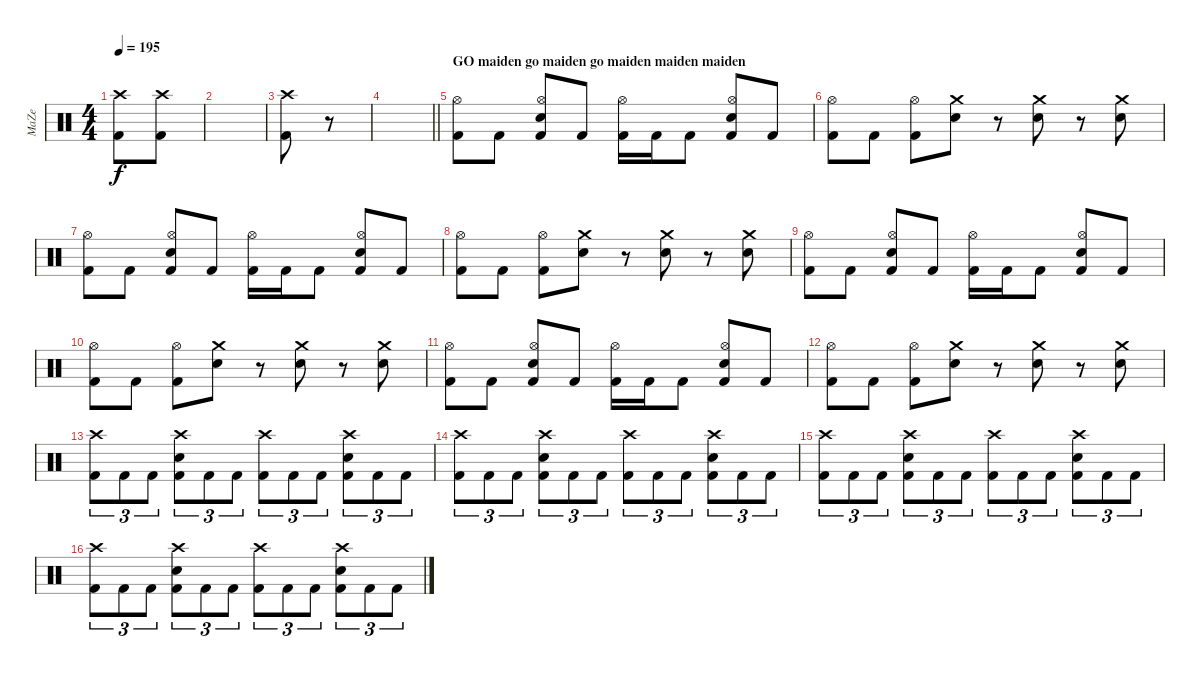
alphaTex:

\track ("MaZe" "MaZe") {instrument percussion}
\staff {score}
\articulation defaults
\ts (4 4)
\tempo 195
\clef neutral
\ks c
("Crash high (hit)" "Kick (hit) 2").8{dy f} ("Crash high (hit)" "Kick (hit) 2").8 |
|
("Crash high (hit)" "Kick (hit) 2").8 r.8 |
\barLineRight lightlight
|
\section ("" "GO maiden go maiden go maiden maiden maiden")
("Hi-Hat (open)" "Kick (hit) 2").8 "Kick (hit) 2".8 ("Snare (hit) 2" "Hi-Hat (open)" "Kick (hit) 2").8 "Kick (hit) 2".8 ("Hi-Hat (open)" "Kick (hit) 2").16 "Kick (hit) 2".16 "Kick (hit) 2".8 ("Snare (hit) 2" "Hi-Hat (open)" "Kick (hit) 2").8 "Kick (hit) 2".8 |
("Hi-Hat (open)" "Kick (hit) 2").8 "Kick (hit) 2".8 ("Hi-Hat (open)" "Kick (hit) 2").8 ("Crash medium (hit)" "Snare (hit) 2").8 r.8 ("Crash medium (hit)" "Snare (hit) 2").8 r.8 ("Crash medium (hit)" "Snare (hit) 2").8 |
("Hi-Hat (open)" "Kick (hit) 2").8 "Kick (hit) 2".8 ("Snare (hit) 2" "Hi-Hat (open)" "Kick (hit) 2").8 "Kick (hit) 2".8 ("Hi-Hat (open)" "Kick (hit) 2").16 "Kick (hit) 2".16 "Kick (hit) 2".8 ("Snare (hit) 2" "Hi-Hat (open)" "Kick (hit) 2").8 "Kick (hit) 2".8 |
("Hi-Hat (open)" "Kick (hit) 2").8 "Kick (hit) 2".8 ("Hi-Hat (open)" "Kick (hit) 2").8 ("Crash medium (hit)" "Snare (hit) 2").8 r.8 ("Crash medium (hit)" "Snare (hit) 2").8 r.8 ("Crash medium (hit)" "Snare (hit) 2").8 |
("Hi-Hat (open)" "Kick (hit) 2").8 "Kick (hit) 2".8 ("Snare (hit) 2" "Hi-Hat (open)" "Kick (hit) 2").8 "Kick (hit) 2".8 ("Hi-Hat (open)" "Kick (hit) 2").16 "Kick (hit) 2".16 "Kick (hit) 2".8 ("Snare (hit) 2" "Hi-Hat (open)" "Kick (hit) 2").8 "Kick (hit) 2".8 |
("Hi-Hat (open)" "Kick (hit) 2").8 "Kick (hit) 2".8 ("Hi-Hat (open)" "Kick (hit) 2").8 ("Crash medium (hit)" "Snare (hit) 2").8 r.8 ("Crash medium (hit)" "Snare (hit) 2").8 r.8 ("Crash medium (hit)" "Snare (hit) 2").8 |
("Hi-Hat (open)" "Kick (hit) 2").8 "Kick (hit) 2".8 ("Snare (hit) 2" "Hi-Hat (open)" "Kick (hit) 2").8 "Kick (hit) 2".8 ("Hi-Hat (open)" "Kick (hit) 2").16 "Kick (hit) 2".16 "Kick (hit) 2".8 ("Snare (hit) 2" "Hi-Hat (open)" "Kick (hit) 2").8 "Kick (hit) 2".8 |
("Hi-Hat (open)" "Kick (hit) 2").8 "Kick (hit) 2".8 ("Hi-Hat (open)" "Kick (hit) 2").8 ("Crash medium (hit)" "Snare (hit) 2").8 r.8 ("Crash medium (hit)" "Snare (hit) 2").8 r.8 ("Crash medium (hit)" "Snare (hit) 2").8 |
("Crash high (hit)" "Kick (hit) 2").8{tu (3 2)} "Kick (hit) 2".8{tu (3 2)} "Kick (hit) 2".8{tu (3 2)} ("Snare (hit) 2" "Crash high (hit)" "Kick (hit) 2").8{tu (3 2)} "Kick (hit) 2".8{tu (3 2)} "Kick (hit) 2".8{tu (3 2)} ("Crash high (hit)" "Kick (hit) 2").8{tu (3 2)} "Kick (hit) 2".8{tu (3 2)} "Kick (hit) 2".8{tu (3 2)} ("Snare (hit) 2" "Crash high (hit)" "Kick (hit) 2").8{tu (3 2)} "Kick (hit) 2".8{tu (3 2)} "Kick (hit) 2".8{tu (3 2)} |
("Crash high (hit)" "Kick (hit) 2").8{tu (3 2)} "Kick (hit) 2".8{tu (3 2)} "Kick (hit) 2".8{tu (3 2)} ("Snare (hit) 2" "Crash high (hit)" "Kick (hit) 2").8{tu (3 2)} "Kick (hit) 2".8{tu (3 2)} "Kick (hit) 2".8{tu (3 2)} ("Crash high (hit)" "Kick (hit) 2").8{tu (3 2)} "Kick (hit) 2".8{tu (3 2)} "Kick (hit) 2".8{tu (3 2)} ("Snare (hit) 2" "Crash high (hit)" "Kick (hit) 2").8{tu (3 2)} "Kick (hit) 2".8{tu (3 2)} "Kick (hit) 2".8{tu (3 2)} |
("Crash high (hit)" "Kick (hit) 2").8{tu (3 2)} "Kick (hit) 2".8{tu (3 2)} "Kick (hit) 2".8{tu (3 2)} ("Snare (hit) 2" "Crash high (hit)" "Kick (hit) 2").8{tu (3 2)} "Kick (hit) 2".8{tu (3 2)} "Kick (hit) 2".8{tu (3 2)} ("Crash high (hit)" "Kick (hit) 2").8{tu (3 2)} "Kick (hit) 2".8{tu (3 2)} "Kick (hit) 2".8{tu (3 2)} ("Snare (hit) 2" "Crash high (hit)" "Kick (hit) 2").8{tu (3 2)} "Kick (hit) 2".8{tu (3 2)} "Kick (hit) 2".8{tu (3 2)} |
("Crash high (hit)" "Kick (hit) 2").8{tu (3 2)} "Kick (hit) 2".8{tu (3 2)} "Kick (hit) 2".8{tu (3 2)} ("Snare (hit) 2" "Crash high (hit)" "Kick (hit) 2").8{tu (3 2)} "Kick (hit) 2".8{tu (3 2)} "Kick (hit) 2".8{tu (3 2)} ("Crash high (hit)" "Kick (hit) 2").8{tu (3 2)} "Kick (hit) 2".8{tu (3 2)} "Kick (hit) 2".8{tu (3 2)} ("Snare (hit) 2" "Crash high (hit)" "Kick (hit) 2").8{tu (3 2)} "Kick (hit) 2".8{tu (3 2)} "Kick (hit) 2".8{tu (3 2)}
